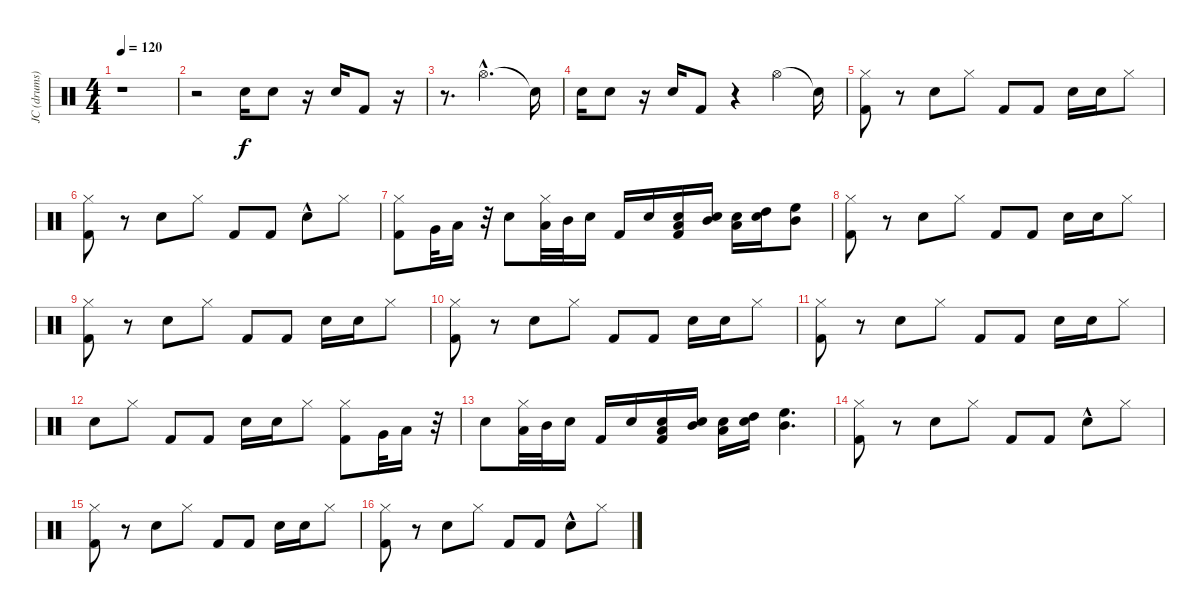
\track ("JC (drums)" "JC (drums)") {instrument percussion}
\staff {score}
\articulation defaults
\ts (4 4)
\tempo 120
\clef neutral
\ks c
r.1{dy f} |
r.2 "Electric Snare (hit)".16 "Snare (hit) 2".8 r.16 "Electric Snare (hit)".16 "Kick (hit) 2".8 r.16 |
r.8{d} "Hi-Hat (open)"{hac}.2{d} "Snare (hit)"{t}.16 |
"Electric Snare (hit)".16 "Snare (hit) 2".8 r.16 "Electric Snare (hit)".16 "Kick (hit) 2".8 r.4 "Hi-Hat (open)".4 "Snare (hit)"{t}.16 |
("Hi-Hat (closed)" "Kick (hit) 2").8 r.8 "Electric Snare (hit)".8 "Hi-Hat (closed)".8 "Kick (hit) 2".8 "Kick (hit) 2".8 "Electric Snare (hit)".16 "Electric Snare (hit)".16 "Hi-Hat (closed)".8 |
("Hi-Hat (closed)" "Kick (hit) 2").8 r.8 "Electric Snare (hit)".8 "Hi-Hat (closed)".8 "Kick (hit) 2".8 "Kick (hit) 2".8 "Electric Snare (hit)"{hac}.8 "Hi-Hat (closed)".8 |
("Hi-Hat (closed)" "Kick (hit) 2").8 "Very Low Tom (hit)".32 "Low Tom (hit)".16 r.32 "Electric Snare (hit)".8 ("Low Tom (hit)" "Hi-Hat (closed)").32 "Mid Tom (hit)".32 "Electric Snare (hit)".16 "Kick (hit) 2".16 "Snare (hit) 2".16 ("Snare (hit) 2" "Low Tom (hit)" "Kick (hit) 2").16 ("Snare (hit) 2" "Mid Tom (hit)").16 ("Low Tom (hit)" "Electric Snare (hit)").16 ("High Tom (hit)" "Electric Snare (hit)").16 ("Mid Tom (hit)" "High Floor Tom (hit)").8 |
("Hi-Hat (closed)" "Kick (hit) 2").8 r.8 "Electric Snare (hit)".8 "Hi-Hat (closed)".8 "Kick (hit) 2".8 "Kick (hit) 2".8 "Electric Snare (hit)".16 "Electric Snare (hit)".16 "Hi-Hat (closed)".8 |
("Hi-Hat (closed)" "Kick (hit) 2").8 r.8 "Electric Snare (hit)".8 "Hi-Hat (closed)".8 "Kick (hit) 2".8 "Kick (hit) 2".8 "Electric Snare (hit)".16 "Electric Snare (hit)".16 "Hi-Hat (closed)".8 |
("Hi-Hat (closed)" "Kick (hit) 2").8 r.8 "Electric Snare (hit)".8 "Hi-Hat (closed)".8 "Kick (hit) 2".8 "Kick (hit) 2".8 "Electric Snare (hit)".16 "Electric Snare (hit)".16 "Hi-Hat (closed)".8 |
("Hi-Hat (closed)" "Kick (hit) 2").8 r.8 "Electric Snare (hit)".8 "Hi-Hat (closed)".8 "Kick (hit) 2".8 "Kick (hit) 2".8 "Electric Snare (hit)".16 "Electric Snare (hit)".16 "Hi-Hat (closed)".8 |
"Electric Snare (hit)".8 "Hi-Hat (closed)".8 "Kick (hit) 2".8 "Kick (hit) 2".8 "Electric Snare (hit)".16 "Electric Snare (hit)".16 "Hi-Hat (closed)".8 ("Hi-Hat (closed)" "Kick (hit) 2").8 "Very Low Tom (hit)".32 "Low Tom (hit)".16 r.32 |
"Electric Snare (hit)".8 ("Low Tom (hit)" "Hi-Hat (closed)").32 "Mid Tom (hit)".32 "Electric Snare (hit)".16 "Kick (hit) 2".16 "Snare (hit) 2".16 ("Snare (hit) 2" "Low Tom (hit)" "Kick (hit) 2").16 ("Snare (hit) 2" "Mid Tom (hit)").16 ("Low Tom (hit)" "Electric Snare (hit)").16 ("High Tom (hit)" "Electric Snare (hit)").16 ("Mid Tom (hit)" "High Floor Tom (hit)").4{d} |
("Hi-Hat (closed)" "Kick (hit) 2").8 r.8 "Electric Snare (hit)".8 "Hi-Hat (closed)".8 "Kick (hit) 2".8 "Kick (hit) 2".8 "Electric Snare (hit)"{hac}.8 "Hi-Hat (closed)".8 |
("Hi-Hat (closed)" "Kick (hit) 2").8 r.8 "Electric Snare (hit)".8 "Hi-Hat (closed)".8 "Kick (hit) 2".8 "Kick (hit) 2".8 "Electric Snare (hit)".16 "Electric Snare (hit)".16 "Hi-Hat (closed)".8 |
("Hi-Hat (closed)" "Kick (hit) 2").8 r.8 "Electric Snare (hit)".8 "Hi-Hat (closed)".8 "Kick (hit) 2".8 "Kick (hit) 2".8 "Electric Snare (hit)"{hac}.8 "Hi-Hat (closed)".8
